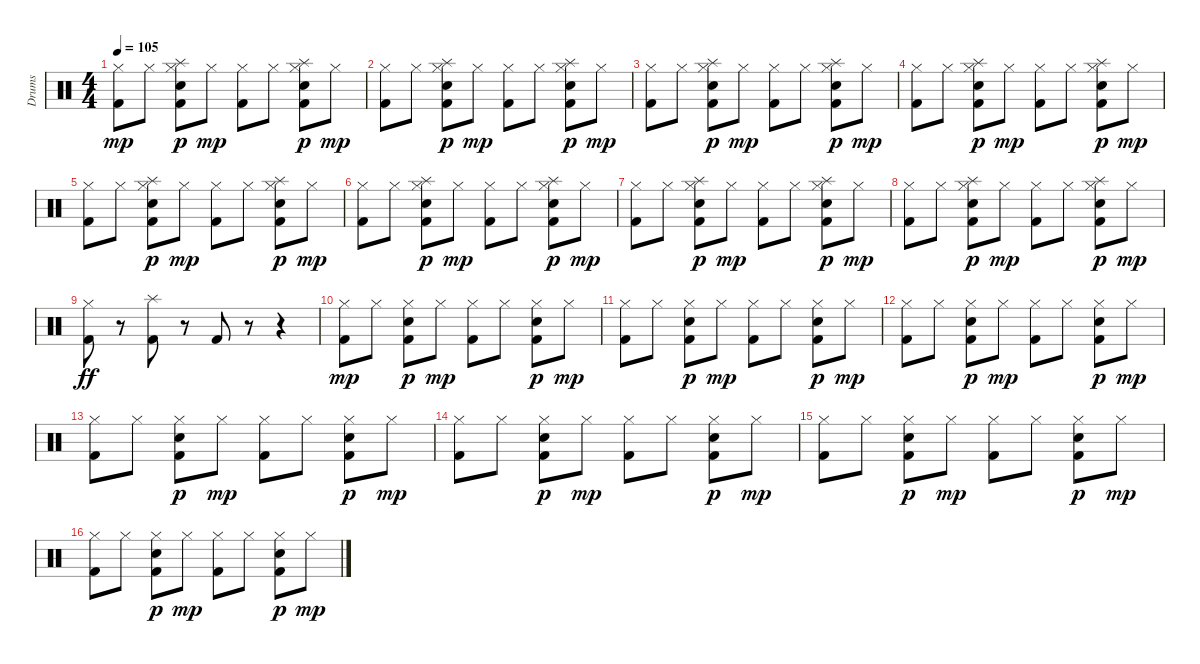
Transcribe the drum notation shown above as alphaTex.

\track ("Drums" "Drums") {instrument percussion}
\staff {score}
\articulation defaults
\ts (4 4)
\tempo 105
\clef neutral
\ks c
("Hi-Hat (closed)" "Kick (hit) 2").8{dy mp} "Hi-Hat (closed)".8 ("Splash (hit)" "Hi-Hat (closed)" "Snare (hit) 2" "Kick (hit) 2").8{dy p} "Hi-Hat (closed)".8{dy mp} ("Hi-Hat (closed)" "Kick (hit) 2").8 "Hi-Hat (closed)".8 ("Splash (hit)" "Hi-Hat (closed)" "Snare (hit) 2" "Kick (hit) 2").8{dy p} "Hi-Hat (closed)".8{dy mp} |
("Hi-Hat (closed)" "Kick (hit) 2").8 "Hi-Hat (closed)".8 ("Splash (hit)" "Hi-Hat (closed)" "Snare (hit) 2" "Kick (hit) 2").8{dy p} "Hi-Hat (closed)".8{dy mp} ("Hi-Hat (closed)" "Kick (hit) 2").8 "Hi-Hat (closed)".8 ("Splash (hit)" "Hi-Hat (closed)" "Snare (hit) 2" "Kick (hit) 2").8{dy p} "Hi-Hat (closed)".8{dy mp} |
("Hi-Hat (closed)" "Kick (hit) 2").8 "Hi-Hat (closed)".8 ("Splash (hit)" "Hi-Hat (closed)" "Snare (hit) 2" "Kick (hit) 2").8{dy p} "Hi-Hat (closed)".8{dy mp} ("Hi-Hat (closed)" "Kick (hit) 2").8 "Hi-Hat (closed)".8 ("Splash (hit)" "Hi-Hat (closed)" "Snare (hit) 2" "Kick (hit) 2").8{dy p} "Hi-Hat (closed)".8{dy mp} |
("Hi-Hat (closed)" "Kick (hit) 2").8 "Hi-Hat (closed)".8 ("Splash (hit)" "Hi-Hat (closed)" "Snare (hit) 2" "Kick (hit) 2").8{dy p} "Hi-Hat (closed)".8{dy mp} ("Hi-Hat (closed)" "Kick (hit) 2").8 "Hi-Hat (closed)".8 ("Splash (hit)" "Hi-Hat (closed)" "Snare (hit) 2" "Kick (hit) 2").8{dy p} "Hi-Hat (closed)".8{dy mp} |
("Hi-Hat (closed)" "Kick (hit) 2").8 "Hi-Hat (closed)".8 ("Splash (hit)" "Hi-Hat (closed)" "Snare (hit) 2" "Kick (hit) 2").8{dy p} "Hi-Hat (closed)".8{dy mp} ("Hi-Hat (closed)" "Kick (hit) 2").8 "Hi-Hat (closed)".8 ("Splash (hit)" "Hi-Hat (closed)" "Snare (hit) 2" "Kick (hit) 2").8{dy p} "Hi-Hat (closed)".8{dy mp} |
("Hi-Hat (closed)" "Kick (hit) 2").8 "Hi-Hat (closed)".8 ("Splash (hit)" "Hi-Hat (closed)" "Snare (hit) 2" "Kick (hit) 2").8{dy p} "Hi-Hat (closed)".8{dy mp} ("Hi-Hat (closed)" "Kick (hit) 2").8 "Hi-Hat (closed)".8 ("Splash (hit)" "Hi-Hat (closed)" "Snare (hit) 2" "Kick (hit) 2").8{dy p} "Hi-Hat (closed)".8{dy mp} |
("Hi-Hat (closed)" "Kick (hit) 2").8 "Hi-Hat (closed)".8 ("Splash (hit)" "Hi-Hat (closed)" "Snare (hit) 2" "Kick (hit) 2").8{dy p} "Hi-Hat (closed)".8{dy mp} ("Hi-Hat (closed)" "Kick (hit) 2").8 "Hi-Hat (closed)".8 ("Splash (hit)" "Hi-Hat (closed)" "Snare (hit) 2" "Kick (hit) 2").8{dy p} "Hi-Hat (closed)".8{dy mp} |
("Hi-Hat (closed)" "Kick (hit) 2").8 "Hi-Hat (closed)".8 ("Splash (hit)" "Hi-Hat (closed)" "Snare (hit) 2" "Kick (hit) 2").8{dy p} "Hi-Hat (closed)".8{dy mp} ("Hi-Hat (closed)" "Kick (hit) 2").8 "Hi-Hat (closed)".8 ("Splash (hit)" "Hi-Hat (closed)" "Snare (hit) 2" "Kick (hit) 2").8{dy p} "Hi-Hat (closed)".8{dy mp} |
("Hi-Hat (closed)" "Kick (hit) 2").8{dy ff} r.8 ("Splash (hit)" "Kick (hit) 2").8 r.8 "Kick (hit) 2".8 r.8 r.4 |
("Hi-Hat (closed)" "Kick (hit) 2").8{dy mp volume 11} "Hi-Hat (closed)".8 ("Hi-Hat (closed)" "Snare (hit) 2" "Kick (hit) 2").8{dy p} "Hi-Hat (closed)".8{dy mp} ("Hi-Hat (closed)" "Kick (hit) 2").8 "Hi-Hat (closed)".8 ("Hi-Hat (closed)" "Snare (hit) 2" "Kick (hit) 2").8{dy p} "Hi-Hat (closed)".8{dy mp} |
("Hi-Hat (closed)" "Kick (hit) 2").8 "Hi-Hat (closed)".8 ("Hi-Hat (closed)" "Snare (hit) 2" "Kick (hit) 2").8{dy p} "Hi-Hat (closed)".8{dy mp} ("Hi-Hat (closed)" "Kick (hit) 2").8 "Hi-Hat (closed)".8 ("Hi-Hat (closed)" "Snare (hit) 2" "Kick (hit) 2").8{dy p} "Hi-Hat (closed)".8{dy mp} |
("Hi-Hat (closed)" "Kick (hit) 2").8 "Hi-Hat (closed)".8 ("Hi-Hat (closed)" "Snare (hit) 2" "Kick (hit) 2").8{dy p} "Hi-Hat (closed)".8{dy mp} ("Hi-Hat (closed)" "Kick (hit) 2").8 "Hi-Hat (closed)".8 ("Hi-Hat (closed)" "Snare (hit) 2" "Kick (hit) 2").8{dy p} "Hi-Hat (closed)".8{dy mp} |
("Hi-Hat (closed)" "Kick (hit) 2").8 "Hi-Hat (closed)".8 ("Hi-Hat (closed)" "Snare (hit) 2" "Kick (hit) 2").8{dy p} "Hi-Hat (closed)".8{dy mp} ("Hi-Hat (closed)" "Kick (hit) 2").8 "Hi-Hat (closed)".8 ("Hi-Hat (closed)" "Snare (hit) 2" "Kick (hit) 2").8{dy p} "Hi-Hat (closed)".8{dy mp} |
("Hi-Hat (closed)" "Kick (hit) 2").8 "Hi-Hat (closed)".8 ("Hi-Hat (closed)" "Snare (hit) 2" "Kick (hit) 2").8{dy p} "Hi-Hat (closed)".8{dy mp} ("Hi-Hat (closed)" "Kick (hit) 2").8 "Hi-Hat (closed)".8 ("Hi-Hat (closed)" "Snare (hit) 2" "Kick (hit) 2").8{dy p} "Hi-Hat (closed)".8{dy mp} |
("Hi-Hat (closed)" "Kick (hit) 2").8 "Hi-Hat (closed)".8 ("Hi-Hat (closed)" "Snare (hit) 2" "Kick (hit) 2").8{dy p} "Hi-Hat (closed)".8{dy mp} ("Hi-Hat (closed)" "Kick (hit) 2").8 "Hi-Hat (closed)".8 ("Hi-Hat (closed)" "Snare (hit) 2" "Kick (hit) 2").8{dy p} "Hi-Hat (closed)".8{dy mp} |
("Hi-Hat (closed)" "Kick (hit) 2").8 "Hi-Hat (closed)".8 ("Hi-Hat (closed)" "Snare (hit) 2" "Kick (hit) 2").8{dy p} "Hi-Hat (closed)".8{dy mp} ("Hi-Hat (closed)" "Kick (hit) 2").8 "Hi-Hat (closed)".8 ("Hi-Hat (closed)" "Snare (hit) 2" "Kick (hit) 2").8{dy p} "Hi-Hat (closed)".8{dy mp}
